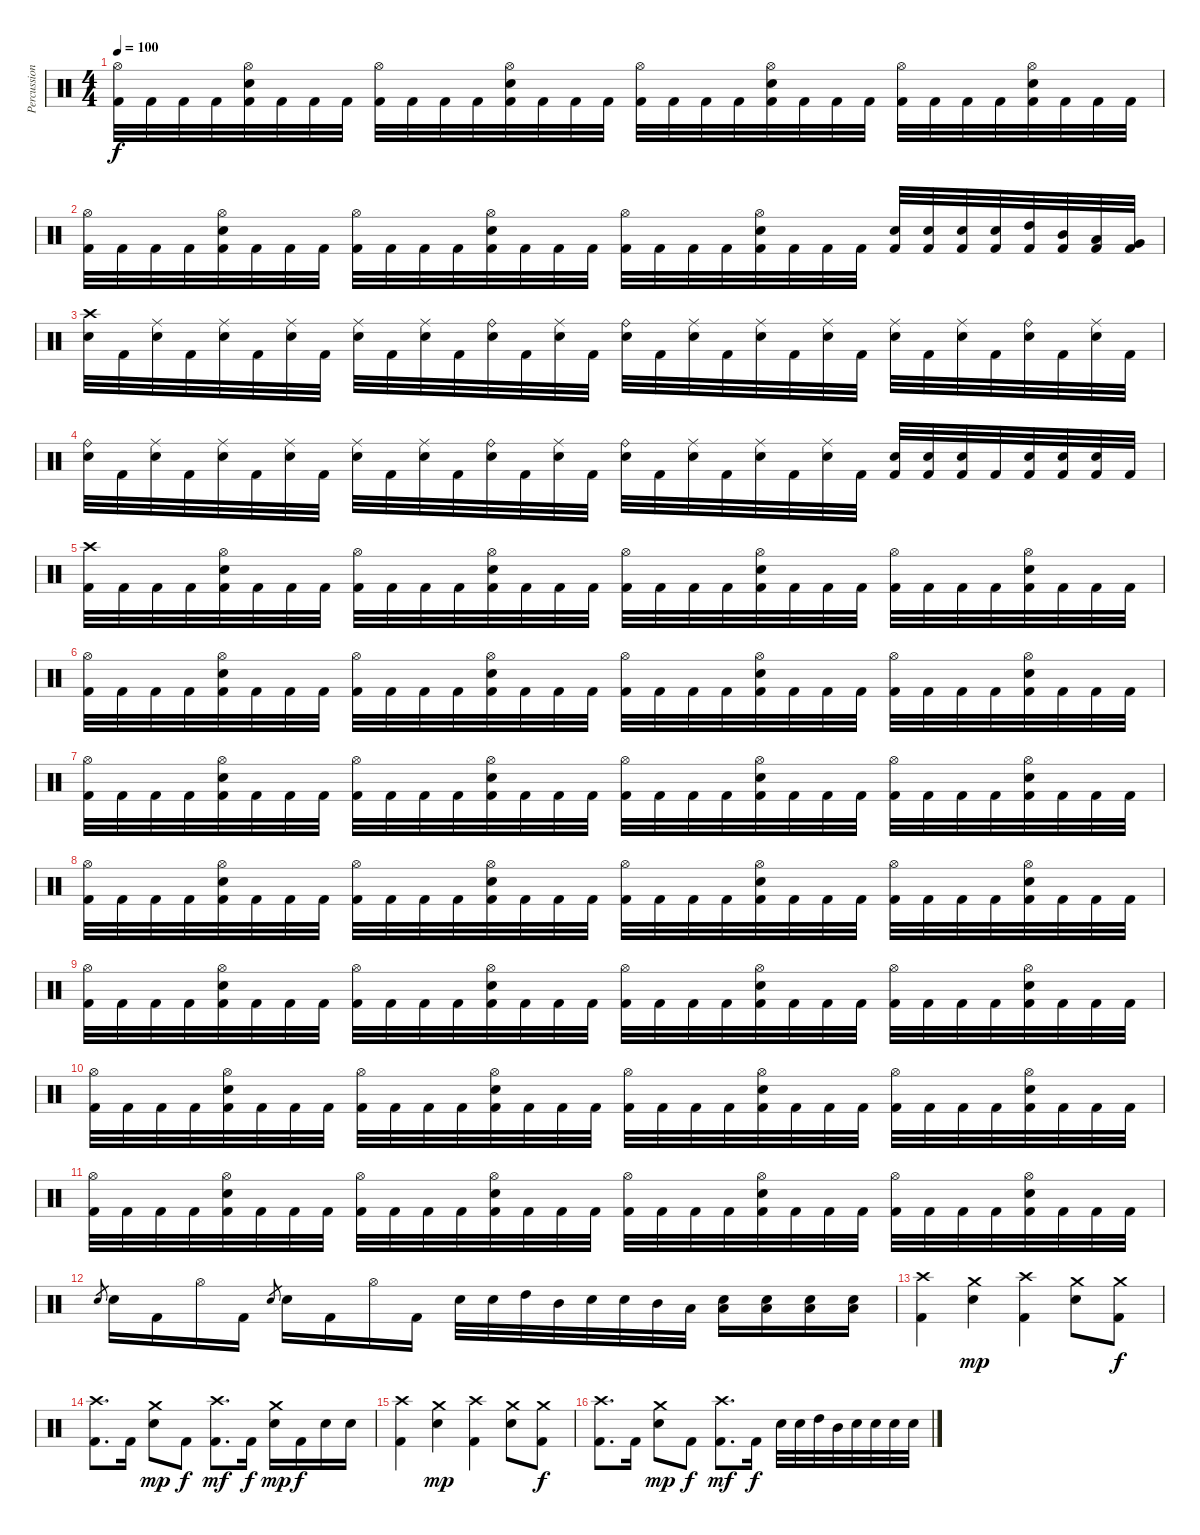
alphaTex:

\track ("Percussion" "Percussion") {instrument percussion}
\staff {score}
\articulation defaults
\ts (4 4)
\tempo 100
\clef neutral
\ks c
("Hi-Hat (open)" "Kick (hit) 2").32{dy f} "Kick (hit) 2".32 "Kick (hit) 2".32 "Kick (hit) 2".32 ("Hi-Hat (open)" "Snare (hit) 2" "Kick (hit) 2").32 "Kick (hit) 2".32 "Kick (hit) 2".32 "Kick (hit) 2".32 ("Hi-Hat (open)" "Kick (hit) 2").32 "Kick (hit) 2".32 "Kick (hit) 2".32 "Kick (hit) 2".32 ("Hi-Hat (open)" "Snare (hit) 2" "Kick (hit) 2").32 "Kick (hit) 2".32 "Kick (hit) 2".32 "Kick (hit) 2".32 ("Hi-Hat (open)" "Kick (hit) 2").32 "Kick (hit) 2".32 "Kick (hit) 2".32 "Kick (hit) 2".32 ("Hi-Hat (open)" "Snare (hit) 2" "Kick (hit) 2").32 "Kick (hit) 2".32 "Kick (hit) 2".32 "Kick (hit) 2".32 ("Hi-Hat (open)" "Kick (hit) 2").32 "Kick (hit) 2".32 "Kick (hit) 2".32 "Kick (hit) 2".32 ("Hi-Hat (open)" "Snare (hit) 2" "Kick (hit) 2").32 "Kick (hit) 2".32 "Kick (hit) 2".32 "Kick (hit) 2".32 |
("Hi-Hat (open)" "Kick (hit) 2").32 "Kick (hit) 2".32 "Kick (hit) 2".32 "Kick (hit) 2".32 ("Hi-Hat (open)" "Snare (hit) 2" "Kick (hit) 2").32 "Kick (hit) 2".32 "Kick (hit) 2".32 "Kick (hit) 2".32 ("Hi-Hat (open)" "Kick (hit) 2").32 "Kick (hit) 2".32 "Kick (hit) 2".32 "Kick (hit) 2".32 ("Hi-Hat (open)" "Snare (hit) 2" "Kick (hit) 2").32 "Kick (hit) 2".32 "Kick (hit) 2".32 "Kick (hit) 2".32 ("Hi-Hat (open)" "Kick (hit) 2").32 "Kick (hit) 2".32 "Kick (hit) 2".32 "Kick (hit) 2".32 ("Hi-Hat (open)" "Snare (hit) 2" "Kick (hit) 2").32 "Kick (hit) 2".32 "Kick (hit) 2".32 "Kick (hit) 2".32 ("Snare (hit) 2" "Kick (hit) 2").32 ("Snare (hit) 2" "Kick (hit) 2").32 ("Snare (hit) 2" "Kick (hit) 2").32 ("Snare (hit) 2" "Kick (hit) 2").32 ("High Tom (hit)" "Kick (hit) 2").32 ("Mid Tom (hit)" "Kick (hit) 2").32 ("Low Tom (hit)" "Kick (hit) 2").32 ("Very Low Tom (hit)" "Kick (hit) 2").32 |
("Crash high (hit)" "Snare (hit) 2").32 "Kick (hit) 2".32 ("Ride (middle)" "Snare (hit) 2").32 "Kick (hit) 2".32 ("Ride (middle)" "Snare (hit) 2").32 "Kick (hit) 2".32 ("Ride (middle)" "Snare (hit) 2").32 "Kick (hit) 2".32 ("Ride (middle)" "Snare (hit) 2").32 "Kick (hit) 2".32 ("Ride (middle)" "Snare (hit) 2").32 "Kick (hit) 2".32 ("Ride (bell)" "Snare (hit) 2").32 "Kick (hit) 2".32 ("Ride (middle)" "Snare (hit) 2").32 "Kick (hit) 2".32 ("Ride (bell)" "Snare (hit) 2").32 "Kick (hit) 2".32 ("Ride (middle)" "Snare (hit) 2").32 "Kick (hit) 2".32 ("Ride (middle)" "Snare (hit) 2").32 "Kick (hit) 2".32 ("Ride (middle)" "Snare (hit) 2").32 "Kick (hit) 2".32 ("Ride (middle)" "Snare (hit) 2").32 "Kick (hit) 2".32 ("Ride (middle)" "Snare (hit) 2").32 "Kick (hit) 2".32 ("Ride (bell)" "Snare (hit) 2").32 "Kick (hit) 2".32 ("Ride (middle)" "Snare (hit) 2").32 "Kick (hit) 2".32 |
("Ride (bell)" "Snare (hit) 2").32 "Kick (hit) 2".32 ("Ride (middle)" "Snare (hit) 2").32 "Kick (hit) 2".32 ("Ride (middle)" "Snare (hit) 2").32 "Kick (hit) 2".32 ("Ride (middle)" "Snare (hit) 2").32 "Kick (hit) 2".32 ("Ride (middle)" "Snare (hit) 2").32 "Kick (hit) 2".32 ("Ride (middle)" "Snare (hit) 2").32 "Kick (hit) 2".32 ("Ride (bell)" "Snare (hit) 2").32 "Kick (hit) 2".32 ("Ride (middle)" "Snare (hit) 2").32 "Kick (hit) 2".32 ("Ride (bell)" "Snare (hit) 2").32 "Kick (hit) 2".32 ("Ride (middle)" "Snare (hit) 2").32 "Kick (hit) 2".32 ("Ride (middle)" "Snare (hit) 2").32 "Kick (hit) 2".32 ("Ride (middle)" "Snare (hit) 2").32 "Kick (hit) 2".32 ("Snare (hit) 2" "Kick (hit) 2").32 ("Snare (hit) 2" "Kick (hit) 2").32 ("Snare (hit) 2" "Kick (hit) 2").32 "Kick (hit) 2".32 ("Snare (hit) 2" "Kick (hit) 2").32 ("Snare (hit) 2" "Kick (hit) 2").32 ("Snare (hit) 2" "Kick (hit) 2").32 "Kick (hit) 2".32 |
("Crash high (hit)" "Kick (hit) 2").32 "Kick (hit) 2".32 "Kick (hit) 2".32 "Kick (hit) 2".32 ("Hi-Hat (open)" "Snare (hit) 2" "Kick (hit) 2").32 "Kick (hit) 2".32 "Kick (hit) 2".32 "Kick (hit) 2".32 ("Hi-Hat (open)" "Kick (hit) 2").32 "Kick (hit) 2".32 "Kick (hit) 2".32 "Kick (hit) 2".32 ("Hi-Hat (open)" "Snare (hit) 2" "Kick (hit) 2").32 "Kick (hit) 2".32 "Kick (hit) 2".32 "Kick (hit) 2".32 ("Hi-Hat (open)" "Kick (hit) 2").32 "Kick (hit) 2".32 "Kick (hit) 2".32 "Kick (hit) 2".32 ("Hi-Hat (open)" "Snare (hit) 2" "Kick (hit) 2").32 "Kick (hit) 2".32 "Kick (hit) 2".32 "Kick (hit) 2".32 ("Hi-Hat (open)" "Kick (hit) 2").32 "Kick (hit) 2".32 "Kick (hit) 2".32 "Kick (hit) 2".32 ("Hi-Hat (open)" "Snare (hit) 2" "Kick (hit) 2").32 "Kick (hit) 2".32 "Kick (hit) 2".32 "Kick (hit) 2".32 |
("Hi-Hat (open)" "Kick (hit) 2").32 "Kick (hit) 2".32 "Kick (hit) 2".32 "Kick (hit) 2".32 ("Hi-Hat (open)" "Snare (hit) 2" "Kick (hit) 2").32 "Kick (hit) 2".32 "Kick (hit) 2".32 "Kick (hit) 2".32 ("Hi-Hat (open)" "Kick (hit) 2").32 "Kick (hit) 2".32 "Kick (hit) 2".32 "Kick (hit) 2".32 ("Hi-Hat (open)" "Snare (hit) 2" "Kick (hit) 2").32 "Kick (hit) 2".32 "Kick (hit) 2".32 "Kick (hit) 2".32 ("Hi-Hat (open)" "Kick (hit) 2").32 "Kick (hit) 2".32 "Kick (hit) 2".32 "Kick (hit) 2".32 ("Hi-Hat (open)" "Snare (hit) 2" "Kick (hit) 2").32 "Kick (hit) 2".32 "Kick (hit) 2".32 "Kick (hit) 2".32 ("Hi-Hat (open)" "Kick (hit) 2").32 "Kick (hit) 2".32 "Kick (hit) 2".32 "Kick (hit) 2".32 ("Hi-Hat (open)" "Snare (hit) 2" "Kick (hit) 2").32 "Kick (hit) 2".32 "Kick (hit) 2".32 "Kick (hit) 2".32 |
("Hi-Hat (open)" "Kick (hit) 2").32 "Kick (hit) 2".32 "Kick (hit) 2".32 "Kick (hit) 2".32 ("Hi-Hat (open)" "Snare (hit) 2" "Kick (hit) 2").32 "Kick (hit) 2".32 "Kick (hit) 2".32 "Kick (hit) 2".32 ("Hi-Hat (open)" "Kick (hit) 2").32 "Kick (hit) 2".32 "Kick (hit) 2".32 "Kick (hit) 2".32 ("Hi-Hat (open)" "Snare (hit) 2" "Kick (hit) 2").32 "Kick (hit) 2".32 "Kick (hit) 2".32 "Kick (hit) 2".32 ("Hi-Hat (open)" "Kick (hit) 2").32 "Kick (hit) 2".32 "Kick (hit) 2".32 "Kick (hit) 2".32 ("Hi-Hat (open)" "Snare (hit) 2" "Kick (hit) 2").32 "Kick (hit) 2".32 "Kick (hit) 2".32 "Kick (hit) 2".32 ("Hi-Hat (open)" "Kick (hit) 2").32 "Kick (hit) 2".32 "Kick (hit) 2".32 "Kick (hit) 2".32 ("Hi-Hat (open)" "Snare (hit) 2" "Kick (hit) 2").32 "Kick (hit) 2".32 "Kick (hit) 2".32 "Kick (hit) 2".32 |
("Hi-Hat (open)" "Kick (hit) 2").32 "Kick (hit) 2".32 "Kick (hit) 2".32 "Kick (hit) 2".32 ("Hi-Hat (open)" "Snare (hit) 2" "Kick (hit) 2").32 "Kick (hit) 2".32 "Kick (hit) 2".32 "Kick (hit) 2".32 ("Hi-Hat (open)" "Kick (hit) 2").32 "Kick (hit) 2".32 "Kick (hit) 2".32 "Kick (hit) 2".32 ("Hi-Hat (open)" "Snare (hit) 2" "Kick (hit) 2").32 "Kick (hit) 2".32 "Kick (hit) 2".32 "Kick (hit) 2".32 ("Hi-Hat (open)" "Kick (hit) 2").32 "Kick (hit) 2".32 "Kick (hit) 2".32 "Kick (hit) 2".32 ("Hi-Hat (open)" "Snare (hit) 2" "Kick (hit) 2").32 "Kick (hit) 2".32 "Kick (hit) 2".32 "Kick (hit) 2".32 ("Hi-Hat (open)" "Kick (hit) 2").32 "Kick (hit) 2".32 "Kick (hit) 2".32 "Kick (hit) 2".32 ("Hi-Hat (open)" "Snare (hit) 2" "Kick (hit) 2").32 "Kick (hit) 2".32 "Kick (hit) 2".32 "Kick (hit) 2".32 |
("Hi-Hat (open)" "Kick (hit) 2").32 "Kick (hit) 2".32 "Kick (hit) 2".32 "Kick (hit) 2".32 ("Hi-Hat (open)" "Snare (hit) 2" "Kick (hit) 2").32 "Kick (hit) 2".32 "Kick (hit) 2".32 "Kick (hit) 2".32 ("Hi-Hat (open)" "Kick (hit) 2").32 "Kick (hit) 2".32 "Kick (hit) 2".32 "Kick (hit) 2".32 ("Hi-Hat (open)" "Snare (hit) 2" "Kick (hit) 2").32 "Kick (hit) 2".32 "Kick (hit) 2".32 "Kick (hit) 2".32 ("Hi-Hat (open)" "Kick (hit) 2").32 "Kick (hit) 2".32 "Kick (hit) 2".32 "Kick (hit) 2".32 ("Hi-Hat (open)" "Snare (hit) 2" "Kick (hit) 2").32 "Kick (hit) 2".32 "Kick (hit) 2".32 "Kick (hit) 2".32 ("Hi-Hat (open)" "Kick (hit) 2").32 "Kick (hit) 2".32 "Kick (hit) 2".32 "Kick (hit) 2".32 ("Hi-Hat (open)" "Snare (hit) 2" "Kick (hit) 2").32 "Kick (hit) 2".32 "Kick (hit) 2".32 "Kick (hit) 2".32 |
("Hi-Hat (open)" "Kick (hit) 2").32 "Kick (hit) 2".32 "Kick (hit) 2".32 "Kick (hit) 2".32 ("Hi-Hat (open)" "Snare (hit) 2" "Kick (hit) 2").32 "Kick (hit) 2".32 "Kick (hit) 2".32 "Kick (hit) 2".32 ("Hi-Hat (open)" "Kick (hit) 2").32 "Kick (hit) 2".32 "Kick (hit) 2".32 "Kick (hit) 2".32 ("Hi-Hat (open)" "Snare (hit) 2" "Kick (hit) 2").32 "Kick (hit) 2".32 "Kick (hit) 2".32 "Kick (hit) 2".32 ("Hi-Hat (open)" "Kick (hit) 2").32 "Kick (hit) 2".32 "Kick (hit) 2".32 "Kick (hit) 2".32 ("Hi-Hat (open)" "Snare (hit) 2" "Kick (hit) 2").32 "Kick (hit) 2".32 "Kick (hit) 2".32 "Kick (hit) 2".32 ("Hi-Hat (open)" "Kick (hit) 2").32 "Kick (hit) 2".32 "Kick (hit) 2".32 "Kick (hit) 2".32 ("Hi-Hat (open)" "Snare (hit) 2" "Kick (hit) 2").32 "Kick (hit) 2".32 "Kick (hit) 2".32 "Kick (hit) 2".32 |
("Hi-Hat (open)" "Kick (hit) 2").32 "Kick (hit) 2".32 "Kick (hit) 2".32 "Kick (hit) 2".32 ("Hi-Hat (open)" "Snare (hit) 2" "Kick (hit) 2").32 "Kick (hit) 2".32 "Kick (hit) 2".32 "Kick (hit) 2".32 ("Hi-Hat (open)" "Kick (hit) 2").32 "Kick (hit) 2".32 "Kick (hit) 2".32 "Kick (hit) 2".32 ("Hi-Hat (open)" "Snare (hit) 2" "Kick (hit) 2").32 "Kick (hit) 2".32 "Kick (hit) 2".32 "Kick (hit) 2".32 ("Hi-Hat (open)" "Kick (hit) 2").32 "Kick (hit) 2".32 "Kick (hit) 2".32 "Kick (hit) 2".32 ("Hi-Hat (open)" "Snare (hit) 2" "Kick (hit) 2").32 "Kick (hit) 2".32 "Kick (hit) 2".32 "Kick (hit) 2".32 ("Hi-Hat (open)" "Kick (hit) 2").32 "Kick (hit) 2".32 "Kick (hit) 2".32 "Kick (hit) 2".32 ("Hi-Hat (open)" "Snare (hit) 2" "Kick (hit) 2").32 "Kick (hit) 2".32 "Kick (hit) 2".32 "Kick (hit) 2".32 |
"Snare (hit) 2".8{gr} "Snare (hit) 2".16 "Kick (hit) 2".16 "Hi-Hat (open)".16 "Kick (hit) 2".16 "Snare (hit) 2".8{gr} "Snare (hit) 2".16 "Kick (hit) 2".16 "Hi-Hat (open)".16 "Kick (hit) 2".16 "Snare (hit) 2".32 "Snare (hit) 2".32 "High Tom (hit)".32 "Mid Tom (hit)".32 "Snare (hit) 2".32 "Snare (hit) 2".32 "Mid Tom (hit)".32 "Low Tom (hit)".32 ("Snare (hit) 2" "Low Floor Tom (hit)").16 ("Snare (hit) 2" "Low Floor Tom (hit)").16 ("Snare (hit) 2" "Low Floor Tom (hit)").16 ("Snare (hit) 2" "Low Floor Tom (hit)").16 |
("Crash high (hit)" "Kick (hit) 2").4 ("Crash medium (hit)" "Snare (hit) 2").4{dy mp} ("Crash high (hit)" "Kick (hit) 2").4 ("Crash medium (hit)" "Snare (hit) 2").8 ("Crash medium (hit)" "Kick (hit) 2").8{dy f} |
("Crash high (hit)" "Kick (hit) 2").8{d} "Kick (hit) 2".16 ("Crash medium (hit)" "Snare (hit) 2").8{dy mp} "Kick (hit) 2".8{dy f} ("Crash high (hit)" "Kick (hit) 2").8{d dy mf} "Kick (hit) 2".16{dy f} ("Crash medium (hit)" "Snare (hit) 2").16{dy mp} "Kick (hit) 2".16{dy f} "Snare (hit) 2".16 "Snare (hit) 2".16 |
("Crash high (hit)" "Kick (hit) 2").4 ("Crash medium (hit)" "Snare (hit) 2").4{dy mp} ("Crash high (hit)" "Kick (hit) 2").4 ("Crash medium (hit)" "Snare (hit) 2").8 ("Crash medium (hit)" "Kick (hit) 2").8{dy f} |
("Crash high (hit)" "Kick (hit) 2").8{d} "Kick (hit) 2".16 ("Crash medium (hit)" "Snare (hit) 2").8{dy mp} "Kick (hit) 2".8{dy f} ("Crash high (hit)" "Kick (hit) 2").8{d dy mf} "Kick (hit) 2".16{dy f} "Snare (hit) 2".32 "Snare (hit) 2".32 "High Tom (hit)".32 "Mid Tom (hit)".32 "Snare (hit) 2".32 "Snare (hit) 2".32 "Snare (hit) 2".32 "Snare (hit) 2".32
